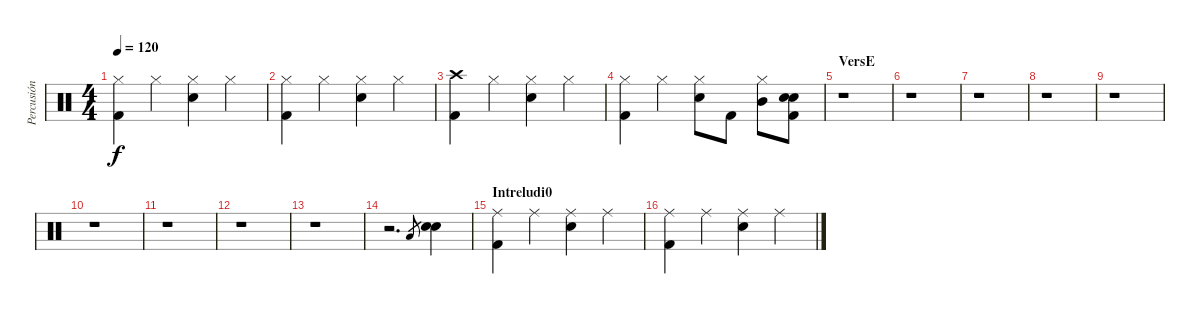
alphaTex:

\track ("Percusión" "Percusión") {instrument percussion}
\staff {score}
\articulation defaults
\ts (4 4)
\tempo 120
\clef neutral
\ks c
("Hi-Hat (closed)" "Kick (hit) 2").4{dy f} "Hi-Hat (closed)".4 ("Hi-Hat (closed)" "Electric Snare (hit)").4 "Hi-Hat (closed)".4 |
("Hi-Hat (closed)" "Kick (hit) 2").4 "Hi-Hat (closed)".4 ("Hi-Hat (closed)" "Electric Snare (hit)").4 "Hi-Hat (closed)".4 |
("Crash high (hit)" "Kick (hit) 2").4 "Hi-Hat (closed)".4 ("Hi-Hat (closed)" "Electric Snare (hit)").4 "Hi-Hat (closed)".4 |
("Hi-Hat (closed)" "Kick (hit) 2").4 "Hi-Hat (closed)".4 ("Hi-Hat (closed)" "Electric Snare (hit)").8 "Kick (hit) 2".8 ("Hi-Hat (closed)" "Mid Tom (hit)").8 ("Electric Snare (hit)" "Electric Snare (hit)" "Kick (hit) 2").8 |
\section ("" "VersE")
r.1 |
r.1 |
r.1 |
r.1 |
r.1 |
r.1 |
r.1 |
r.1 |
r.1 |
r.2{d} "Low Tom (hit)".8{gr} ("Electric Snare (hit)" "Electric Snare (hit)").4 |
\section ("" "Intreludi0")
("Ride (middle)" "Kick (hit) 2").4 "Ride (middle)".4 ("Electric Snare (hit)" "Ride (middle)").4 "Ride (middle)".4 |
("Ride (middle)" "Kick (hit) 2").4 "Ride (middle)".4 ("Electric Snare (hit)" "Ride (middle)").4 "Ride (middle)".4
